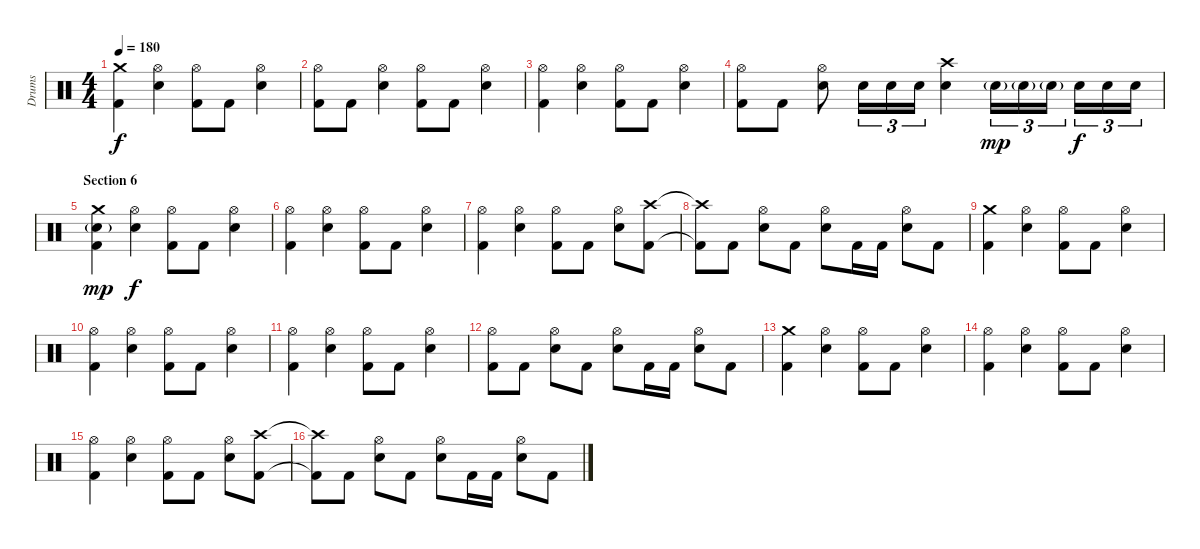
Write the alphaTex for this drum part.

\track ("Drums" "Drums") {instrument percussion}
\staff {score}
\articulation defaults
\ts (4 4)
\tempo 180
\clef neutral
\ks c
("Crash medium (hit)" "Kick (hit) 2").4{dy f} ("Hi-Hat (open)" "Electric Snare (hit)").4 ("Hi-Hat (open)" "Kick (hit) 2").8 "Kick (hit) 2".8 ("Hi-Hat (open)" "Electric Snare (hit)").4 |
("Hi-Hat (open)" "Kick (hit) 2").8 "Kick (hit) 2".8 ("Hi-Hat (open)" "Electric Snare (hit)").4 ("Hi-Hat (open)" "Kick (hit) 2").8 "Kick (hit) 2".8 ("Hi-Hat (open)" "Electric Snare (hit)").4 |
("Hi-Hat (open)" "Kick (hit) 2").4 ("Hi-Hat (open)" "Electric Snare (hit)").4 ("Hi-Hat (open)" "Kick (hit) 2").8 "Kick (hit) 2".8 ("Hi-Hat (open)" "Electric Snare (hit)").4 |
("Hi-Hat (open)" "Kick (hit) 2").8 "Kick (hit) 2".8 ("Hi-Hat (open)" "Electric Snare (hit)").8 "Electric Snare (hit)".16{tu (3 2)} "Electric Snare (hit)".16{tu (3 2)} "Electric Snare (hit)".16{tu (3 2)} ("Crash high (hit)" "Electric Snare (hit)").4 "Electric Snare (hit)"{g}.16{tu (3 2) dy mp} "Electric Snare (hit)"{g}.16{tu (3 2)} "Electric Snare (hit)"{g}.16{tu (3 2) beam splitsecondary} "Electric Snare (hit)".16{tu (3 2) dy f} "Electric Snare (hit)".16{tu (3 2)} "Electric Snare (hit)".16{tu (3 2)} |
\section ("" "Section 6")
("Crash medium (hit)" "Electric Snare (hit)"{g} "Kick (hit) 2").4{dy mp} ("Hi-Hat (open)" "Electric Snare (hit)").4{dy f} ("Hi-Hat (open)" "Kick (hit) 2").8 "Kick (hit) 2".8 ("Hi-Hat (open)" "Electric Snare (hit)").4 |
("Hi-Hat (open)" "Kick (hit) 2").4 ("Hi-Hat (open)" "Electric Snare (hit)").4 ("Hi-Hat (open)" "Kick (hit) 2").8 "Kick (hit) 2".8 ("Hi-Hat (open)" "Electric Snare (hit)").4 |
("Hi-Hat (open)" "Kick (hit) 2").4 ("Hi-Hat (open)" "Electric Snare (hit)").4 ("Hi-Hat (open)" "Kick (hit) 2").8 "Kick (hit) 2".8 ("Hi-Hat (open)" "Electric Snare (hit)").8 ("Crash high (hit)" "Kick (hit) 2").8 |
("Crash high (hit)"{t} "Kick (hit) 2"{t}).8 "Kick (hit) 2".8 ("Hi-Hat (open)" "Electric Snare (hit)").8 "Kick (hit) 2".8 ("Hi-Hat (open)" "Electric Snare (hit)").8 "Kick (hit) 2".16 "Kick (hit) 2".16 ("Hi-Hat (open)" "Electric Snare (hit)").8 "Kick (hit) 2".8 |
("Crash medium (hit)" "Kick (hit) 2").4 ("Hi-Hat (open)" "Electric Snare (hit)").4 ("Hi-Hat (open)" "Kick (hit) 2").8 "Kick (hit) 2".8 ("Hi-Hat (open)" "Electric Snare (hit)").4 |
("Hi-Hat (open)" "Kick (hit) 2").4 ("Hi-Hat (open)" "Electric Snare (hit)").4 ("Hi-Hat (open)" "Kick (hit) 2").8 "Kick (hit) 2".8 ("Hi-Hat (open)" "Electric Snare (hit)").4 |
("Hi-Hat (open)" "Kick (hit) 2").4 ("Hi-Hat (open)" "Electric Snare (hit)").4 ("Hi-Hat (open)" "Kick (hit) 2").8 "Kick (hit) 2".8 ("Hi-Hat (open)" "Electric Snare (hit)").4 |
("Hi-Hat (open)" "Kick (hit) 2").8 "Kick (hit) 2".8 ("Hi-Hat (open)" "Electric Snare (hit)").8 "Kick (hit) 2".8 ("Hi-Hat (open)" "Electric Snare (hit)").8 "Kick (hit) 2".16 "Kick (hit) 2".16 ("Hi-Hat (open)" "Electric Snare (hit)").8 "Kick (hit) 2".8 |
("Crash medium (hit)" "Kick (hit) 2").4 ("Hi-Hat (open)" "Electric Snare (hit)").4 ("Hi-Hat (open)" "Kick (hit) 2").8 "Kick (hit) 2".8 ("Hi-Hat (open)" "Electric Snare (hit)").4 |
("Hi-Hat (open)" "Kick (hit) 2").4 ("Hi-Hat (open)" "Electric Snare (hit)").4 ("Hi-Hat (open)" "Kick (hit) 2").8 "Kick (hit) 2".8 ("Hi-Hat (open)" "Electric Snare (hit)").4 |
("Hi-Hat (open)" "Kick (hit) 2").4 ("Hi-Hat (open)" "Electric Snare (hit)").4 ("Hi-Hat (open)" "Kick (hit) 2").8 "Kick (hit) 2".8 ("Hi-Hat (open)" "Electric Snare (hit)").8 ("Crash high (hit)" "Kick (hit) 2").8 |
("Crash high (hit)"{t} "Kick (hit) 2"{t}).8 "Kick (hit) 2".8 ("Hi-Hat (open)" "Electric Snare (hit)").8 "Kick (hit) 2".8 ("Hi-Hat (open)" "Electric Snare (hit)").8 "Kick (hit) 2".16 "Kick (hit) 2".16 ("Hi-Hat (open)" "Electric Snare (hit)").8 "Kick (hit) 2".8
